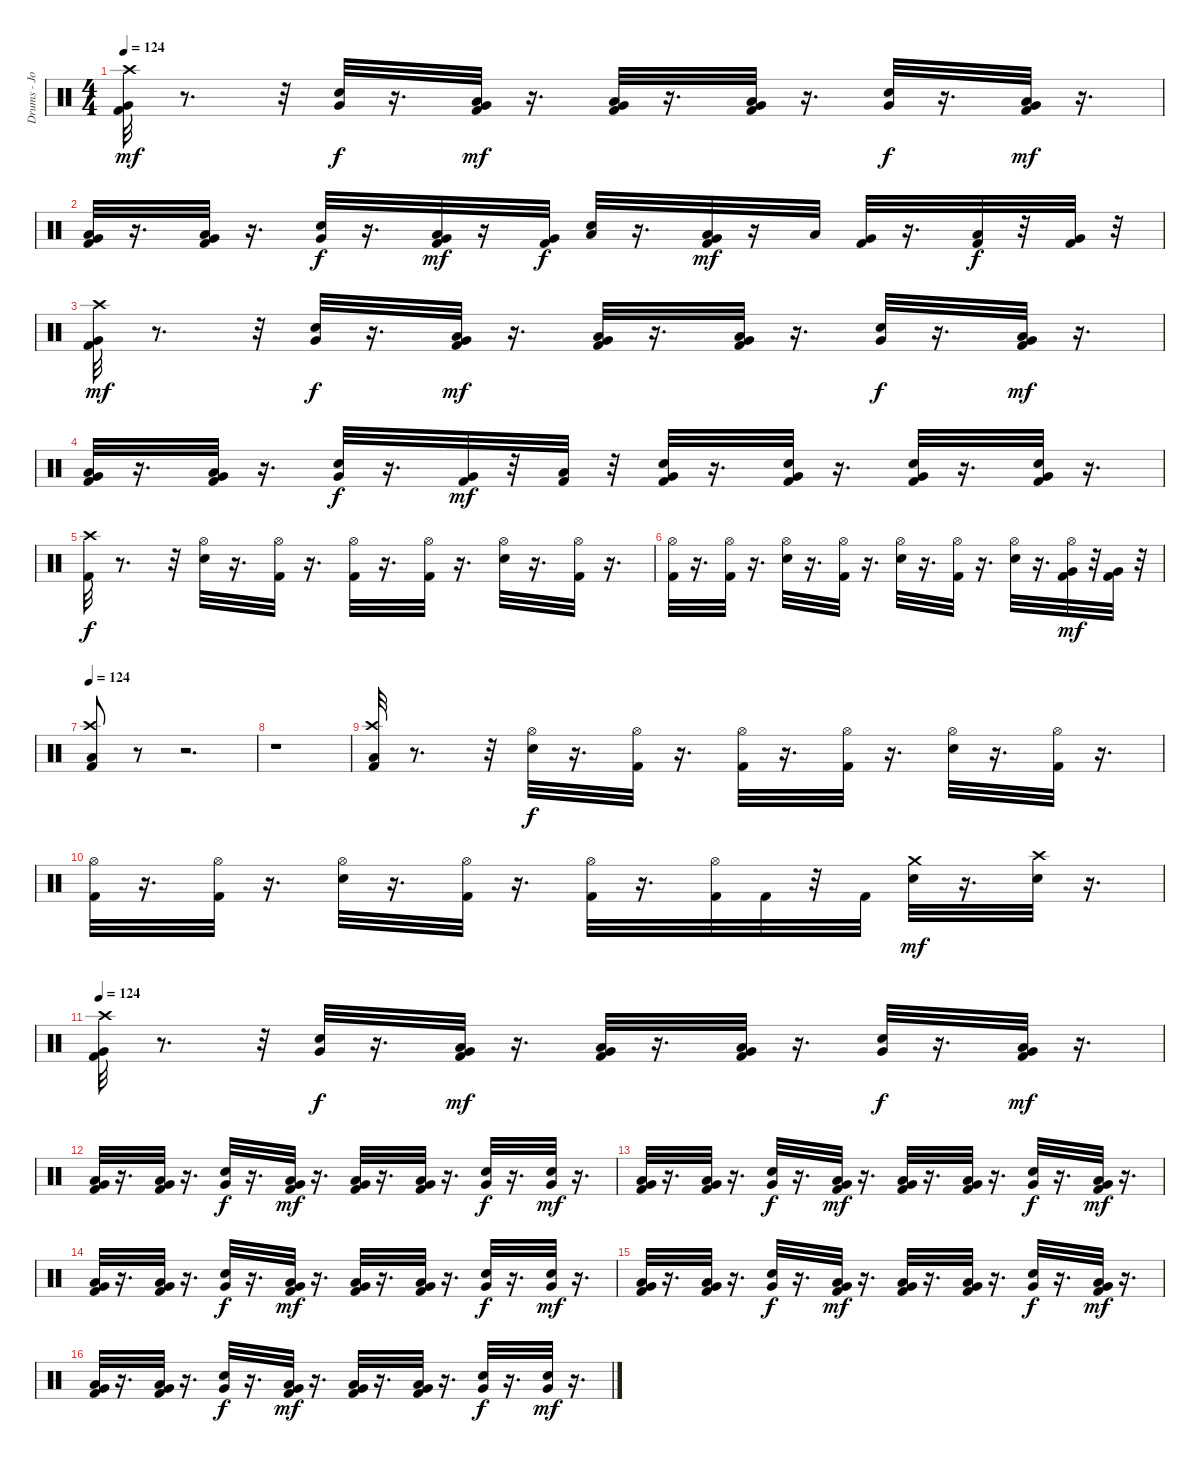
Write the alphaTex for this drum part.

\track ("Drums - John dette" "Drums - Jo") {instrument percussion}
\staff {score}
\articulation defaults
\ts (4 4)
\tempo 124
\clef neutral
\ks c
("Kick (hit) 2" "Very Low Tom (hit)" "Crash high (hit)").32{dy mf} r.8{d} r.32 ("Snare (hit) 2" "Very Low Tom (hit)").32{dy f} r.16{d} ("Kick (hit) 2" "Low Floor Tom (hit)" "Very Low Tom (hit)").32{dy mf} r.16{d} ("Kick (hit) 2" "Low Floor Tom (hit)" "Very Low Tom (hit)").32 r.16{d} ("Kick (hit) 2" "Low Floor Tom (hit)" "Very Low Tom (hit)").32 r.16{d} ("Snare (hit) 2" "Very Low Tom (hit)").32{dy f} r.16{d} ("Kick (hit) 2" "Low Floor Tom (hit)" "Very Low Tom (hit)").32{dy mf} r.16{d} |
("Kick (hit) 2" "Low Floor Tom (hit)" "Very Low Tom (hit)").32 r.16{d} ("Kick (hit) 2" "Low Floor Tom (hit)" "Very Low Tom (hit)").32 r.16{d} ("Snare (hit) 2" "Very Low Tom (hit)").32{dy f} r.16{d} ("Kick (hit) 2" "Low Floor Tom (hit)" "Very Low Tom (hit)").32{dy mf} r.16 ("Kick (hit) 2" "Very Low Tom (hit)").32{dy f} ("Snare (hit) 2" "Low Floor Tom (hit)").32 r.16{d} ("Kick (hit) 2" "Low Floor Tom (hit)" "Very Low Tom (hit)").32{dy mf} r.16 "Low Tom (hit)".32 ("Kick (hit) 2" "Very Low Tom (hit)").32 r.16{d} ("Kick (hit) 2" "Low Tom (hit)").32{dy f} r.32 ("Kick (hit) 2" "Very Low Tom (hit)").32 r.32 |
("Kick (hit) 2" "Very Low Tom (hit)" "Crash high (hit)").32{dy mf} r.8{d} r.32 ("Snare (hit) 2" "Very Low Tom (hit)").32{dy f} r.16{d} ("Kick (hit) 2" "Low Floor Tom (hit)" "Very Low Tom (hit)").32{dy mf} r.16{d} ("Kick (hit) 2" "Low Floor Tom (hit)" "Very Low Tom (hit)").32 r.16{d} ("Kick (hit) 2" "Low Floor Tom (hit)" "Very Low Tom (hit)").32 r.16{d} ("Snare (hit) 2" "Very Low Tom (hit)").32{dy f} r.16{d} ("Kick (hit) 2" "Low Floor Tom (hit)" "Very Low Tom (hit)").32{dy mf} r.16{d} |
("Kick (hit) 2" "Low Floor Tom (hit)" "Very Low Tom (hit)").32 r.16{d} ("Kick (hit) 2" "Low Floor Tom (hit)" "Very Low Tom (hit)").32 r.16{d} ("Snare (hit) 2" "Very Low Tom (hit)").32{dy f} r.16{d} ("Kick (hit) 2" "Very Low Tom (hit)").32{dy mf} r.32 ("Kick (hit) 2" "Low Floor Tom (hit)").32 r.32 ("Kick (hit) 2" "Snare (hit) 2" "Very Low Tom (hit)").32 r.16{d} ("Kick (hit) 2" "Snare (hit) 2" "Very Low Tom (hit)").32 r.16{d} ("Kick (hit) 2" "Snare (hit) 2" "Very Low Tom (hit)").32 r.16{d} ("Kick (hit) 2" "Snare (hit) 2" "Very Low Tom (hit)").32 r.16{d} |
("Kick (hit) 2" "Crash high (hit)").32{dy f} r.8{d} r.32 ("Snare (hit) 2" "Hi-Hat (open)").32 r.16{d} ("Kick (hit) 2" "Hi-Hat (open)").32 r.16{d} ("Kick (hit) 2" "Hi-Hat (open)").32 r.16{d} ("Kick (hit) 2" "Hi-Hat (open)").32 r.16{d} ("Snare (hit) 2" "Hi-Hat (open)").32 r.16{d} ("Kick (hit) 2" "Hi-Hat (open)").32 r.16{d} |
("Kick (hit) 2" "Hi-Hat (open)").32 r.16{d} ("Kick (hit) 2" "Hi-Hat (open)").32 r.16{d} ("Snare (hit) 2" "Hi-Hat (open)").32 r.16{d} ("Kick (hit) 2" "Hi-Hat (open)").32 r.16{d} ("Snare (hit) 2" "Hi-Hat (open)").32 r.16{d} ("Kick (hit) 2" "Hi-Hat (open)").32 r.16{d} ("Snare (hit) 2" "Hi-Hat (open)").32 r.16{d} ("Kick (hit) 2" "Very Low Tom (hit)" "Hi-Hat (open)").32{dy mf} r.32 ("Kick (hit) 2" "Very Low Tom (hit)").32 r.32 |
\tempo 124
("Kick (hit) 2" "Low Floor Tom (hit)" "Crash high (hit)").8 r.8 r.2{d} |
r.1 |
("Kick (hit) 2" "Low Floor Tom (hit)" "Crash high (hit)").32 r.8{d} r.32 ("Snare (hit) 2" "Hi-Hat (open)").32{dy f} r.16{d} ("Kick (hit) 2" "Hi-Hat (open)").32 r.16{d} ("Kick (hit) 2" "Hi-Hat (open)").32 r.16{d} ("Kick (hit) 2" "Hi-Hat (open)").32 r.16{d} ("Snare (hit) 2" "Hi-Hat (open)").32 r.16{d} ("Kick (hit) 2" "Hi-Hat (open)").32 r.16{d} |
("Kick (hit) 2" "Hi-Hat (open)").32 r.16{d} ("Kick (hit) 2" "Hi-Hat (open)").32 r.16{d} ("Snare (hit) 2" "Hi-Hat (open)").32 r.16{d} ("Kick (hit) 2" "Hi-Hat (open)").32 r.16{d} ("Kick (hit) 2" "Hi-Hat (open)").32 r.16{d} ("Kick (hit) 2" "Hi-Hat (open)").32 "Kick (hit) 2".32 r.32 "Kick (hit) 2".32 ("Snare (hit) 2" "Crash medium (hit)").32{dy mf} r.16{d} ("Snare (hit) 2" "Crash high (hit)").32 r.16{d} |
\tempo 124
("Kick (hit) 2" "Very Low Tom (hit)" "Crash high (hit)").32 r.8{d} r.32 ("Snare (hit) 2" "Very Low Tom (hit)").32{dy f} r.16{d} ("Kick (hit) 2" "Low Floor Tom (hit)" "Very Low Tom (hit)").32{dy mf} r.16{d} ("Kick (hit) 2" "Low Floor Tom (hit)" "Very Low Tom (hit)").32 r.16{d} ("Kick (hit) 2" "Low Floor Tom (hit)" "Very Low Tom (hit)").32 r.16{d} ("Snare (hit) 2" "Very Low Tom (hit)").32{dy f} r.16{d} ("Kick (hit) 2" "Low Floor Tom (hit)" "Very Low Tom (hit)").32{dy mf} r.16{d} |
("Kick (hit) 2" "Low Floor Tom (hit)" "Very Low Tom (hit)").32 r.16{d} ("Kick (hit) 2" "Low Floor Tom (hit)" "Very Low Tom (hit)").32 r.16{d} ("Snare (hit) 2" "Very Low Tom (hit)").32{dy f} r.16{d} ("Kick (hit) 2" "Low Floor Tom (hit)" "Very Low Tom (hit)").32{dy mf} r.16{d} ("Kick (hit) 2" "Low Floor Tom (hit)" "Very Low Tom (hit)").32 r.16{d} ("Kick (hit) 2" "Low Floor Tom (hit)" "Very Low Tom (hit)").32 r.16{d} ("Snare (hit) 2" "Very Low Tom (hit)").32{dy f} r.16{d} ("Snare (hit) 2" "Very Low Tom (hit)").32{dy mf} r.16{d} |
("Kick (hit) 2" "Low Floor Tom (hit)" "Very Low Tom (hit)").32 r.16{d} ("Kick (hit) 2" "Low Floor Tom (hit)" "Very Low Tom (hit)").32 r.16{d} ("Snare (hit) 2" "Very Low Tom (hit)").32{dy f} r.16{d} ("Kick (hit) 2" "Low Floor Tom (hit)" "Very Low Tom (hit)").32{dy mf} r.16{d} ("Kick (hit) 2" "Low Floor Tom (hit)" "Very Low Tom (hit)").32 r.16{d} ("Kick (hit) 2" "Low Floor Tom (hit)" "Very Low Tom (hit)").32 r.16{d} ("Snare (hit) 2" "Very Low Tom (hit)").32{dy f} r.16{d} ("Kick (hit) 2" "Low Floor Tom (hit)" "Very Low Tom (hit)").32{dy mf} r.16{d} |
("Kick (hit) 2" "Low Floor Tom (hit)" "Very Low Tom (hit)").32 r.16{d} ("Kick (hit) 2" "Low Floor Tom (hit)" "Very Low Tom (hit)").32 r.16{d} ("Snare (hit) 2" "Very Low Tom (hit)").32{dy f} r.16{d} ("Kick (hit) 2" "Low Floor Tom (hit)" "Very Low Tom (hit)").32{dy mf} r.16{d} ("Kick (hit) 2" "Low Floor Tom (hit)" "Very Low Tom (hit)").32 r.16{d} ("Kick (hit) 2" "Low Floor Tom (hit)" "Very Low Tom (hit)").32 r.16{d} ("Snare (hit) 2" "Very Low Tom (hit)").32{dy f} r.16{d} ("Snare (hit) 2" "Very Low Tom (hit)").32{dy mf} r.16{d} |
("Kick (hit) 2" "Low Floor Tom (hit)" "Very Low Tom (hit)").32 r.16{d} ("Kick (hit) 2" "Low Floor Tom (hit)" "Very Low Tom (hit)").32 r.16{d} ("Snare (hit) 2" "Very Low Tom (hit)").32{dy f} r.16{d} ("Kick (hit) 2" "Low Floor Tom (hit)" "Very Low Tom (hit)").32{dy mf} r.16{d} ("Kick (hit) 2" "Low Floor Tom (hit)" "Very Low Tom (hit)").32 r.16{d} ("Kick (hit) 2" "Low Floor Tom (hit)" "Very Low Tom (hit)").32 r.16{d} ("Snare (hit) 2" "Very Low Tom (hit)").32{dy f} r.16{d} ("Kick (hit) 2" "Low Floor Tom (hit)" "Very Low Tom (hit)").32{dy mf} r.16{d} |
("Kick (hit) 2" "Low Floor Tom (hit)" "Very Low Tom (hit)").32 r.16{d} ("Kick (hit) 2" "Low Floor Tom (hit)" "Very Low Tom (hit)").32 r.16{d} ("Snare (hit) 2" "Very Low Tom (hit)").32{dy f} r.16{d} ("Kick (hit) 2" "Low Floor Tom (hit)" "Very Low Tom (hit)").32{dy mf} r.16{d} ("Kick (hit) 2" "Low Floor Tom (hit)" "Very Low Tom (hit)").32 r.16{d} ("Kick (hit) 2" "Low Floor Tom (hit)" "Very Low Tom (hit)").32 r.16{d} ("Snare (hit) 2" "Very Low Tom (hit)").32{dy f} r.16{d} ("Snare (hit) 2" "Very Low Tom (hit)").32{dy mf} r.16{d}
